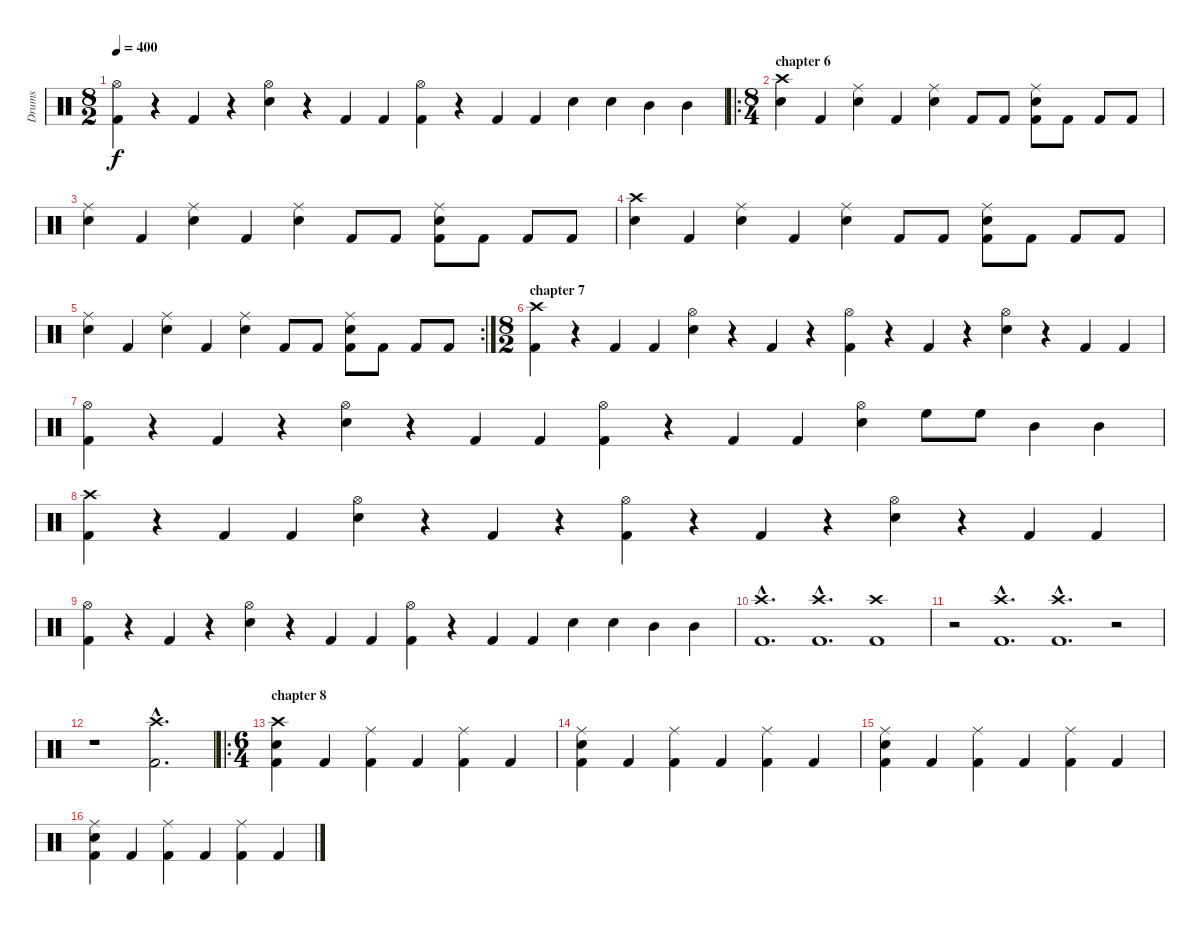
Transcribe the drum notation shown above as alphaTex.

\track ("Drums" "Drums") {instrument percussion}
\staff {score}
\articulation defaults
\ts (8 2)
\tempo 400
\clef neutral
\ks c
("Hi-Hat (open)" "Kick (hit) 2").4{dy f} r.4 "Kick (hit) 2".4 r.4 ("Hi-Hat (open)" "Snare (hit) 2").4 r.4 "Kick (hit) 2".4 "Kick (hit) 2".4 ("Hi-Hat (open)" "Kick (hit) 2").4 r.4 "Kick (hit) 2".4 "Kick (hit) 2".4 "Snare (hit) 2".4 "Snare (hit) 2".4 "Mid Tom (hit)".4 "Mid Tom (hit)".4 |
\ro
\ts (8 4)
\section ("" "chapter 6")
("Crash high (hit)" "Snare (hit) 2").4 "Kick (hit) 2".4 ("Ride (middle)" "Snare (hit) 2").4 "Kick (hit) 2".4 ("Ride (middle)" "Snare (hit) 2").4 "Kick (hit) 2".8 "Kick (hit) 2".8 ("Ride (middle)" "Snare (hit) 2" "Kick (hit) 2").8 "Kick (hit) 2".8 "Kick (hit) 2".8 "Kick (hit) 2".8 |
("Ride (middle)" "Snare (hit) 2").4 "Kick (hit) 2".4 ("Ride (middle)" "Snare (hit) 2").4 "Kick (hit) 2".4 ("Ride (middle)" "Snare (hit) 2").4 "Kick (hit) 2".8 "Kick (hit) 2".8 ("Ride (middle)" "Snare (hit) 2" "Kick (hit) 2").8 "Kick (hit) 2".8 "Kick (hit) 2".8 "Kick (hit) 2".8 |
("Crash high (hit)" "Snare (hit) 2").4 "Kick (hit) 2".4 ("Ride (middle)" "Snare (hit) 2").4 "Kick (hit) 2".4 ("Ride (middle)" "Snare (hit) 2").4 "Kick (hit) 2".8 "Kick (hit) 2".8 ("Ride (middle)" "Snare (hit) 2" "Kick (hit) 2").8 "Kick (hit) 2".8 "Kick (hit) 2".8 "Kick (hit) 2".8 |
\rc 2
("Ride (middle)" "Snare (hit) 2").4 "Kick (hit) 2".4 ("Ride (middle)" "Snare (hit) 2").4 "Kick (hit) 2".4 ("Ride (middle)" "Snare (hit) 2").4 "Kick (hit) 2".8 "Kick (hit) 2".8 ("Ride (middle)" "Snare (hit) 2" "Kick (hit) 2").8 "Kick (hit) 2".8 "Kick (hit) 2".8 "Kick (hit) 2".8 |
\ts (8 2)
\section ("" "chapter 7")
("Crash high (hit)" "Kick (hit) 2").4 r.4 "Kick (hit) 2".4 "Kick (hit) 2".4 ("Hi-Hat (open)" "Snare (hit) 2").4 r.4 "Kick (hit) 2".4 r.4 ("Hi-Hat (open)" "Kick (hit) 2").4 r.4 "Kick (hit) 2".4 r.4 ("Hi-Hat (open)" "Snare (hit) 2").4 r.4 "Kick (hit) 2".4 "Kick (hit) 2".4 |
("Hi-Hat (open)" "Kick (hit) 2").4 r.4 "Kick (hit) 2".4 r.4 ("Hi-Hat (open)" "Snare (hit) 2").4 r.4 "Kick (hit) 2".4 "Kick (hit) 2".4 ("Hi-Hat (open)" "Kick (hit) 2").4 r.4 "Kick (hit) 2".4 "Kick (hit) 2".4 ("Hi-Hat (open)" "Snare (hit) 2").4 "High Floor Tom (hit)".8 "High Floor Tom (hit)".8 "Mid Tom (hit)".4 "Mid Tom (hit)".4 |
("Crash high (hit)" "Kick (hit) 2").4 r.4 "Kick (hit) 2".4 "Kick (hit) 2".4 ("Hi-Hat (open)" "Snare (hit) 2").4 r.4 "Kick (hit) 2".4 r.4 ("Hi-Hat (open)" "Kick (hit) 2").4 r.4 "Kick (hit) 2".4 r.4 ("Hi-Hat (open)" "Snare (hit) 2").4 r.4 "Kick (hit) 2".4 "Kick (hit) 2".4 |
("Hi-Hat (open)" "Kick (hit) 2").4 r.4 "Kick (hit) 2".4 r.4 ("Hi-Hat (open)" "Snare (hit) 2").4 r.4 "Kick (hit) 2".4 "Kick (hit) 2".4 ("Hi-Hat (open)" "Kick (hit) 2").4 r.4 "Kick (hit) 2".4 "Kick (hit) 2".4 "Snare (hit) 2".4 "Snare (hit) 2".4 "Mid Tom (hit)".4 "Mid Tom (hit)".4 |
("Crash high (hit)"{hac} "Kick (hit) 2"{hac}).1{d} ("Crash high (hit)"{hac} "Kick (hit) 2"{hac}).1{d} ("Crash high (hit)" "Kick (hit) 2").1 |
r.2 ("Crash high (hit)"{hac} "Kick (hit) 2"{hac}).1{d} ("Crash high (hit)"{hac} "Kick (hit) 2"{hac}).1{d} r.2 |
r.1 ("Crash high (hit)"{hac} "Kick (hit) 2"{hac}).2{d} |
\ro
\ts (6 4)
\section ("" "chapter 8")
("Crash high (hit)" "Snare (hit) 2" "Kick (hit) 2").4 "Kick (hit) 2".4 ("Ride (middle)" "Kick (hit) 2").4 "Kick (hit) 2".4 ("Ride (middle)" "Kick (hit) 2").4 "Kick (hit) 2".4 |
("Ride (middle)" "Snare (hit) 2" "Kick (hit) 2").4 "Kick (hit) 2".4 ("Ride (middle)" "Kick (hit) 2").4 "Kick (hit) 2".4 ("Ride (middle)" "Kick (hit) 2").4 "Kick (hit) 2".4 |
("Ride (middle)" "Snare (hit) 2" "Kick (hit) 2").4 "Kick (hit) 2".4 ("Ride (middle)" "Kick (hit) 2").4 "Kick (hit) 2".4 ("Ride (middle)" "Kick (hit) 2").4 "Kick (hit) 2".4 |
("Ride (middle)" "Snare (hit) 2" "Kick (hit) 2").4 "Kick (hit) 2".4 ("Ride (middle)" "Kick (hit) 2").4 "Kick (hit) 2".4 ("Ride (middle)" "Kick (hit) 2").4 "Kick (hit) 2".4
